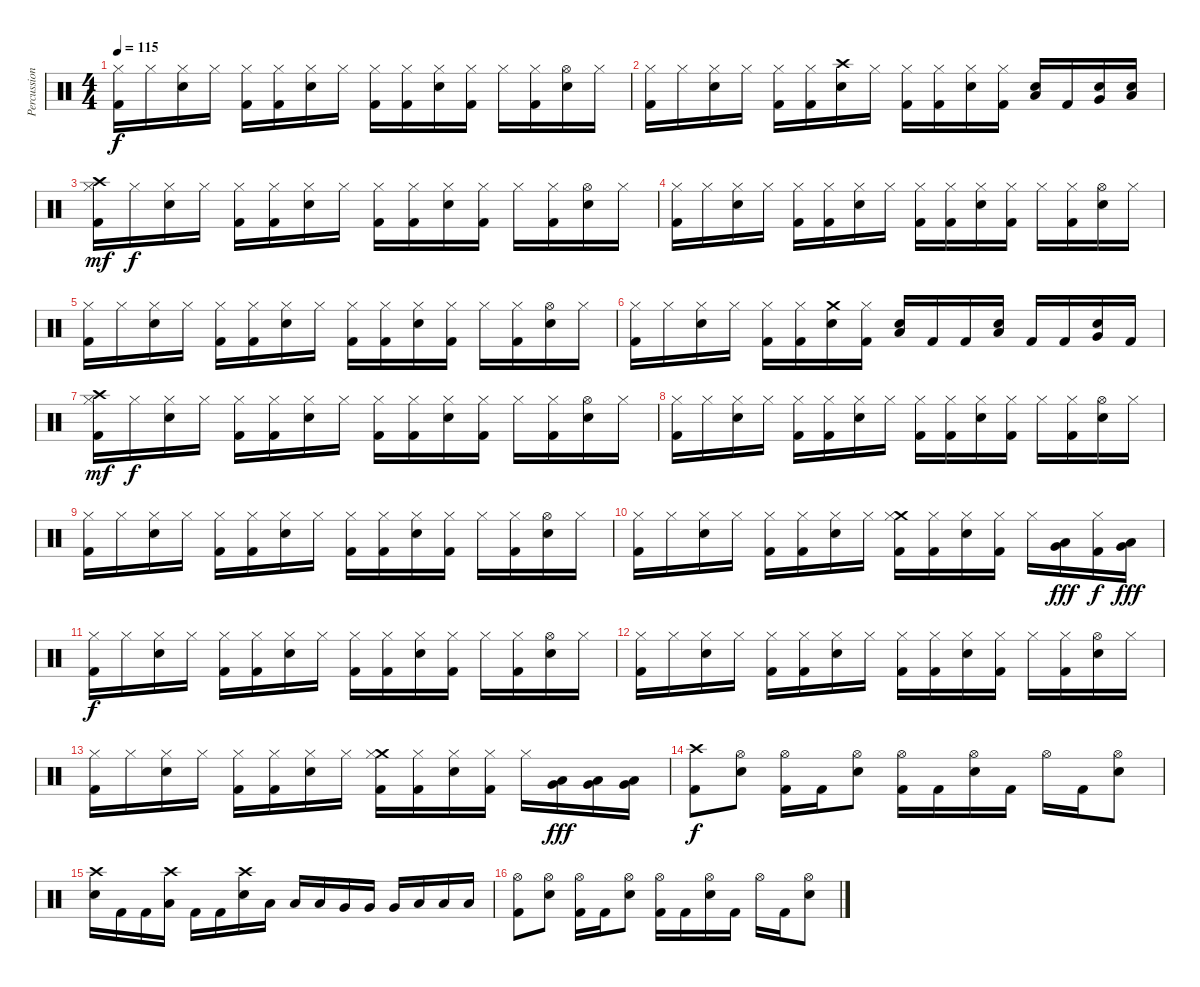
\track ("Percussion" "Percussion") {instrument percussion}
\staff {score}
\articulation defaults
\ts (4 4)
\tempo 115
\clef neutral
\ks c
("Hi-Hat (closed)" "Kick (hit) 2").16{dy f} "Hi-Hat (closed)".16 ("Hi-Hat (closed)" "Electric Snare (hit)").16 "Hi-Hat (closed)".16 ("Hi-Hat (closed)" "Kick (hit) 2").16 ("Hi-Hat (closed)" "Kick (hit) 2").16 ("Hi-Hat (closed)" "Electric Snare (hit)").16 "Hi-Hat (closed)".16 ("Hi-Hat (closed)" "Kick (hit) 2").16 ("Hi-Hat (closed)" "Kick (hit) 2").16 ("Hi-Hat (closed)" "Electric Snare (hit)").16 ("Hi-Hat (closed)" "Kick (hit) 2").16 "Hi-Hat (closed)".16 ("Hi-Hat (closed)" "Kick (hit) 2").16 ("Hi-Hat (open)" "Electric Snare (hit)").16 "Hi-Hat (closed)".16 |
("Hi-Hat (closed)" "Kick (hit) 2").16 "Hi-Hat (closed)".16 ("Hi-Hat (closed)" "Electric Snare (hit)").16 "Hi-Hat (closed)".16 ("Hi-Hat (closed)" "Kick (hit) 2").16 ("Hi-Hat (closed)" "Kick (hit) 2").16 ("Crash high (hit)" "Electric Snare (hit)").16 "Hi-Hat (closed)".16 ("Hi-Hat (closed)" "Kick (hit) 2").16 ("Hi-Hat (closed)" "Kick (hit) 2").16 ("Hi-Hat (closed)" "Electric Snare (hit)").16 ("Hi-Hat (closed)" "Kick (hit) 2").16 ("Low Tom (hit)" "Electric Snare (hit)").16 "Kick (hit) 2".16 ("Very Low Tom (hit)" "Electric Snare (hit)").16 ("Low Floor Tom (hit)" "Electric Snare (hit)").16 |
("Crash high (hit)" "Hi-Hat (closed)" "Kick (hit) 2").16{dy mf} "Hi-Hat (closed)".16{dy f} ("Hi-Hat (closed)" "Electric Snare (hit)").16 "Hi-Hat (closed)".16 ("Hi-Hat (closed)" "Kick (hit) 2").16 ("Hi-Hat (closed)" "Kick (hit) 2").16 ("Hi-Hat (closed)" "Electric Snare (hit)").16 "Hi-Hat (closed)".16 ("Hi-Hat (closed)" "Kick (hit) 2").16 ("Hi-Hat (closed)" "Kick (hit) 2").16 ("Hi-Hat (closed)" "Electric Snare (hit)").16 ("Hi-Hat (closed)" "Kick (hit) 2").16 "Hi-Hat (closed)".16 ("Hi-Hat (closed)" "Kick (hit) 2").16 ("Hi-Hat (open)" "Electric Snare (hit)").16 "Hi-Hat (closed)".16 |
("Hi-Hat (closed)" "Kick (hit) 2").16 "Hi-Hat (closed)".16 ("Hi-Hat (closed)" "Electric Snare (hit)").16 "Hi-Hat (closed)".16 ("Hi-Hat (closed)" "Kick (hit) 2").16 ("Hi-Hat (closed)" "Kick (hit) 2").16 ("Hi-Hat (closed)" "Electric Snare (hit)").16 "Hi-Hat (closed)".16 ("Hi-Hat (closed)" "Kick (hit) 2").16 ("Hi-Hat (closed)" "Kick (hit) 2").16 ("Hi-Hat (closed)" "Electric Snare (hit)").16 ("Hi-Hat (closed)" "Kick (hit) 2").16 "Hi-Hat (closed)".16 ("Hi-Hat (closed)" "Kick (hit) 2").16 ("Hi-Hat (open)" "Electric Snare (hit)").16 "Hi-Hat (closed)".16 |
("Hi-Hat (closed)" "Kick (hit) 2").16 "Hi-Hat (closed)".16 ("Hi-Hat (closed)" "Electric Snare (hit)").16 "Hi-Hat (closed)".16 ("Hi-Hat (closed)" "Kick (hit) 2").16 ("Hi-Hat (closed)" "Kick (hit) 2").16 ("Hi-Hat (closed)" "Electric Snare (hit)").16 "Hi-Hat (closed)".16 ("Hi-Hat (closed)" "Kick (hit) 2").16 ("Hi-Hat (closed)" "Kick (hit) 2").16 ("Hi-Hat (closed)" "Electric Snare (hit)").16 ("Hi-Hat (closed)" "Kick (hit) 2").16 "Hi-Hat (closed)".16 ("Hi-Hat (closed)" "Kick (hit) 2").16 ("Hi-Hat (open)" "Electric Snare (hit)").16 "Hi-Hat (closed)".16 |
("Hi-Hat (closed)" "Kick (hit) 2").16 "Hi-Hat (closed)".16 ("Hi-Hat (closed)" "Electric Snare (hit)").16 "Hi-Hat (closed)".16 ("Hi-Hat (closed)" "Kick (hit) 2").16 ("Hi-Hat (closed)" "Kick (hit) 2").16 ("Crash medium (hit)" "Electric Snare (hit)").16 ("Hi-Hat (closed)" "Kick (hit) 2").16 ("Low Tom (hit)" "Electric Snare (hit)").16 "Kick (hit) 2".16 "Kick (hit) 2".16 ("Low Tom (hit)" "Electric Snare (hit)").16 "Kick (hit) 2".16 "Kick (hit) 2".16 ("Very Low Tom (hit)" "Electric Snare (hit)").16 "Kick (hit) 2".16 |
("Crash high (hit)" "Hi-Hat (closed)" "Kick (hit) 2").16{dy mf} "Hi-Hat (closed)".16{dy f} ("Hi-Hat (closed)" "Electric Snare (hit)").16 "Hi-Hat (closed)".16 ("Hi-Hat (closed)" "Kick (hit) 2").16 ("Hi-Hat (closed)" "Kick (hit) 2").16 ("Hi-Hat (closed)" "Electric Snare (hit)").16 "Hi-Hat (closed)".16 ("Hi-Hat (closed)" "Kick (hit) 2").16 ("Hi-Hat (closed)" "Kick (hit) 2").16 ("Hi-Hat (closed)" "Electric Snare (hit)").16 ("Hi-Hat (closed)" "Kick (hit) 2").16 "Hi-Hat (closed)".16 ("Hi-Hat (closed)" "Kick (hit) 2").16 ("Hi-Hat (open)" "Electric Snare (hit)").16 "Hi-Hat (closed)".16 |
("Hi-Hat (closed)" "Kick (hit) 2").16 "Hi-Hat (closed)".16 ("Hi-Hat (closed)" "Electric Snare (hit)").16 "Hi-Hat (closed)".16 ("Hi-Hat (closed)" "Kick (hit) 2").16 ("Hi-Hat (closed)" "Kick (hit) 2").16 ("Hi-Hat (closed)" "Electric Snare (hit)").16 "Hi-Hat (closed)".16 ("Hi-Hat (closed)" "Kick (hit) 2").16 ("Hi-Hat (closed)" "Kick (hit) 2").16 ("Hi-Hat (closed)" "Electric Snare (hit)").16 ("Hi-Hat (closed)" "Kick (hit) 2").16 "Hi-Hat (closed)".16 ("Hi-Hat (closed)" "Kick (hit) 2").16 ("Hi-Hat (open)" "Electric Snare (hit)").16 "Hi-Hat (closed)".16 |
("Hi-Hat (closed)" "Kick (hit) 2").16 "Hi-Hat (closed)".16 ("Hi-Hat (closed)" "Electric Snare (hit)").16 "Hi-Hat (closed)".16 ("Hi-Hat (closed)" "Kick (hit) 2").16 ("Hi-Hat (closed)" "Kick (hit) 2").16 ("Hi-Hat (closed)" "Electric Snare (hit)").16 "Hi-Hat (closed)".16 ("Hi-Hat (closed)" "Kick (hit) 2").16 ("Hi-Hat (closed)" "Kick (hit) 2").16 ("Hi-Hat (closed)" "Electric Snare (hit)").16 ("Hi-Hat (closed)" "Kick (hit) 2").16 "Hi-Hat (closed)".16 ("Hi-Hat (closed)" "Kick (hit) 2").16 ("Hi-Hat (open)" "Electric Snare (hit)").16 "Hi-Hat (closed)".16 |
("Hi-Hat (closed)" "Kick (hit) 2").16 "Hi-Hat (closed)".16 ("Hi-Hat (closed)" "Electric Snare (hit)").16 "Hi-Hat (closed)".16 ("Hi-Hat (closed)" "Kick (hit) 2").16 ("Hi-Hat (closed)" "Kick (hit) 2").16 ("Hi-Hat (closed)" "Electric Snare (hit)").16 "Hi-Hat (closed)".16 ("Crash medium (hit)" "Hi-Hat (closed)" "Kick (hit) 2").16 ("Hi-Hat (closed)" "Kick (hit) 2").16 ("Hi-Hat (closed)" "Electric Snare (hit)").16 ("Hi-Hat (closed)" "Kick (hit) 2").16 "Hi-Hat (closed)".16 ("Low Floor Tom (hit)" "Very Low Tom (hit)").16{dy fff} ("Hi-Hat (closed)" "Kick (hit) 2").16{dy f} ("Low Floor Tom (hit)" "Very Low Tom (hit)").16{dy fff} |
("Hi-Hat (closed)" "Kick (hit) 2").16{dy f} "Hi-Hat (closed)".16 ("Hi-Hat (closed)" "Electric Snare (hit)").16 "Hi-Hat (closed)".16 ("Hi-Hat (closed)" "Kick (hit) 2").16 ("Hi-Hat (closed)" "Kick (hit) 2").16 ("Hi-Hat (closed)" "Electric Snare (hit)").16 "Hi-Hat (closed)".16 ("Hi-Hat (closed)" "Kick (hit) 2").16 ("Hi-Hat (closed)" "Kick (hit) 2").16 ("Hi-Hat (closed)" "Electric Snare (hit)").16 ("Hi-Hat (closed)" "Kick (hit) 2").16 "Hi-Hat (closed)".16 ("Hi-Hat (closed)" "Kick (hit) 2").16 ("Hi-Hat (open)" "Electric Snare (hit)").16 "Hi-Hat (closed)".16 |
("Hi-Hat (closed)" "Kick (hit) 2").16 "Hi-Hat (closed)".16 ("Hi-Hat (closed)" "Electric Snare (hit)").16 "Hi-Hat (closed)".16 ("Hi-Hat (closed)" "Kick (hit) 2").16 ("Hi-Hat (closed)" "Kick (hit) 2").16 ("Hi-Hat (closed)" "Electric Snare (hit)").16 "Hi-Hat (closed)".16 ("Hi-Hat (closed)" "Kick (hit) 2").16 ("Hi-Hat (closed)" "Kick (hit) 2").16 ("Hi-Hat (closed)" "Electric Snare (hit)").16 ("Hi-Hat (closed)" "Kick (hit) 2").16 "Hi-Hat (closed)".16 ("Hi-Hat (closed)" "Kick (hit) 2").16 ("Hi-Hat (open)" "Electric Snare (hit)").16 "Hi-Hat (closed)".16 |
("Hi-Hat (closed)" "Kick (hit) 2").16 "Hi-Hat (closed)".16 ("Hi-Hat (closed)" "Electric Snare (hit)").16 "Hi-Hat (closed)".16 ("Hi-Hat (closed)" "Kick (hit) 2").16 ("Hi-Hat (closed)" "Kick (hit) 2").16 ("Hi-Hat (closed)" "Electric Snare (hit)").16 "Hi-Hat (closed)".16 ("Crash medium (hit)" "Hi-Hat (closed)" "Kick (hit) 2").16 ("Hi-Hat (closed)" "Kick (hit) 2").16 ("Hi-Hat (closed)" "Electric Snare (hit)").16 ("Hi-Hat (closed)" "Kick (hit) 2").16 "Hi-Hat (closed)".16 ("Low Floor Tom (hit)" "Very Low Tom (hit)").16{dy fff} ("Low Floor Tom (hit)" "Very Low Tom (hit)").16 ("Low Floor Tom (hit)" "Very Low Tom (hit)").16 |
("Crash high (hit)" "Kick (hit) 2").8{dy f} ("Hi-Hat (open)" "Electric Snare (hit)").8 ("Hi-Hat (open)" "Kick (hit) 2").16 "Kick (hit) 2".16 ("Hi-Hat (open)" "Electric Snare (hit)").8 ("Hi-Hat (open)" "Kick (hit) 2").16 "Kick (hit) 2".16 ("Hi-Hat (open)" "Electric Snare (hit)").16 "Kick (hit) 2".16 "Hi-Hat (open)".16 "Kick (hit) 2".16 ("Hi-Hat (open)" "Electric Snare (hit)").8 |
("Crash high (hit)" "Electric Snare (hit)").16 "Kick (hit) 2".16 "Kick (hit) 2".16 ("Crash high (hit)" "Low Tom (hit)").16 "Kick (hit) 2".16 "Kick (hit) 2".16 ("Crash high (hit)" "Electric Snare (hit)").16 "Low Tom (hit)".16 "Low Tom (hit)".16 "Low Tom (hit)".16 "Very Low Tom (hit)".16 "Very Low Tom (hit)".16 "Very Low Tom (hit)".16 "Low Floor Tom (hit)".16 "Low Floor Tom (hit)".16 "Low Floor Tom (hit)".16 |
("Hi-Hat (open)" "Kick (hit) 2").8 ("Hi-Hat (open)" "Electric Snare (hit)").8 ("Hi-Hat (open)" "Kick (hit) 2").16 "Kick (hit) 2".16 ("Hi-Hat (open)" "Electric Snare (hit)").8 ("Hi-Hat (open)" "Kick (hit) 2").16 "Kick (hit) 2".16 ("Hi-Hat (open)" "Electric Snare (hit)").16 "Kick (hit) 2".16 "Hi-Hat (open)".16 "Kick (hit) 2".16 ("Hi-Hat (open)" "Electric Snare (hit)").8
